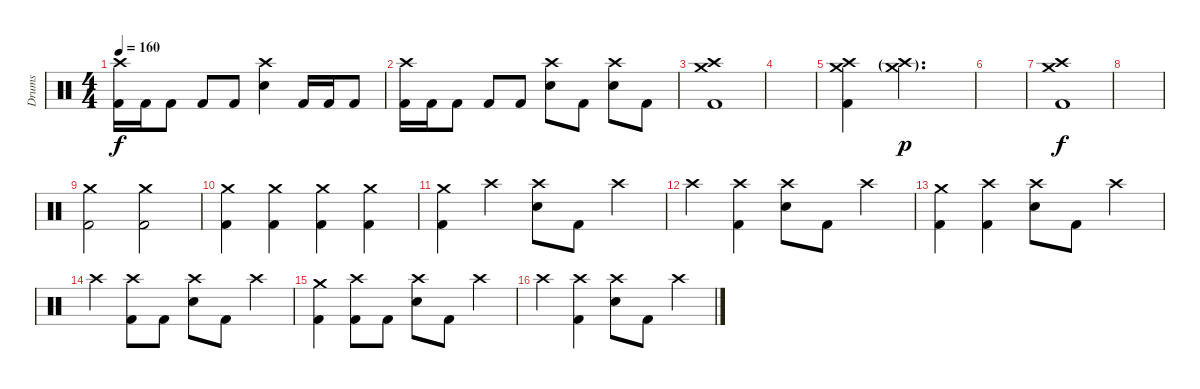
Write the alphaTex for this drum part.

\track ("Drums" "Drums") {instrument percussion}
\staff {score}
\articulation defaults
\ts (4 4)
\tempo 160
\clef neutral
\ks c
("Crash high (hit)" "Kick (hit) 2").16{dy f} "Kick (hit) 2".16 "Kick (hit) 2".8 "Kick (hit) 2".8 "Kick (hit) 2".8 ("Crash high (hit)" "Electric Snare (hit)").4 "Kick (hit) 2".16 "Kick (hit) 2".16 "Kick (hit) 2".8 |
("Crash high (hit)" "Kick (hit) 2").16 "Kick (hit) 2".16 "Kick (hit) 2".8 "Kick (hit) 2".8 "Kick (hit) 2".8 ("Crash high (hit)" "Electric Snare (hit)").8 "Kick (hit) 2".8 ("Crash high (hit)" "Electric Snare (hit)").8 "Kick (hit) 2".8 |
("Crash medium (hit)" "Crash high (hit)" "Kick (hit) 2").1 |
|
("Crash medium (hit)" "Crash high (hit)" "Kick (hit) 2").4 ("Crash medium (hit)"{g} "Crash high (hit)"{g}).2{d dy p} |
|
("Crash medium (hit)" "Crash high (hit)" "Kick (hit) 2").1{dy f} |
|
("Crash medium (hit)" "Kick (hit) 2").2 ("Crash medium (hit)" "Kick (hit) 2").2 |
("Crash medium (hit)" "Kick (hit) 2").4 ("Crash medium (hit)" "Kick (hit) 2").4 ("Crash medium (hit)" "Kick (hit) 2").4 ("Crash medium (hit)" "Kick (hit) 2").4 |
("Crash medium (hit)" "Kick (hit) 2").4 "Crash high (hit)".4 ("Crash high (hit)" "Electric Snare (hit)").8 "Kick (hit) 2".8 "Crash high (hit)".4 |
"Crash high (hit)".4 ("Crash high (hit)" "Kick (hit) 2").4 ("Crash high (hit)" "Electric Snare (hit)").8 "Kick (hit) 2".8 "Crash high (hit)".4 |
("Crash medium (hit)" "Kick (hit) 2").4 ("Crash high (hit)" "Kick (hit) 2").4 ("Crash high (hit)" "Electric Snare (hit)").8 "Kick (hit) 2".8 "Crash high (hit)".4 |
"Crash high (hit)".4 ("Crash high (hit)" "Kick (hit) 2").8 "Kick (hit) 2".8 ("Crash high (hit)" "Electric Snare (hit)").8 "Kick (hit) 2".8 "Crash high (hit)".4 |
("Crash medium (hit)" "Kick (hit) 2").4 ("Crash high (hit)" "Kick (hit) 2").8 "Kick (hit) 2".8 ("Crash high (hit)" "Electric Snare (hit)").8 "Kick (hit) 2".8 "Crash high (hit)".4 |
"Crash high (hit)".4 ("Crash high (hit)" "Kick (hit) 2").4 ("Crash high (hit)" "Electric Snare (hit)").8 "Kick (hit) 2".8 "Crash high (hit)".4
